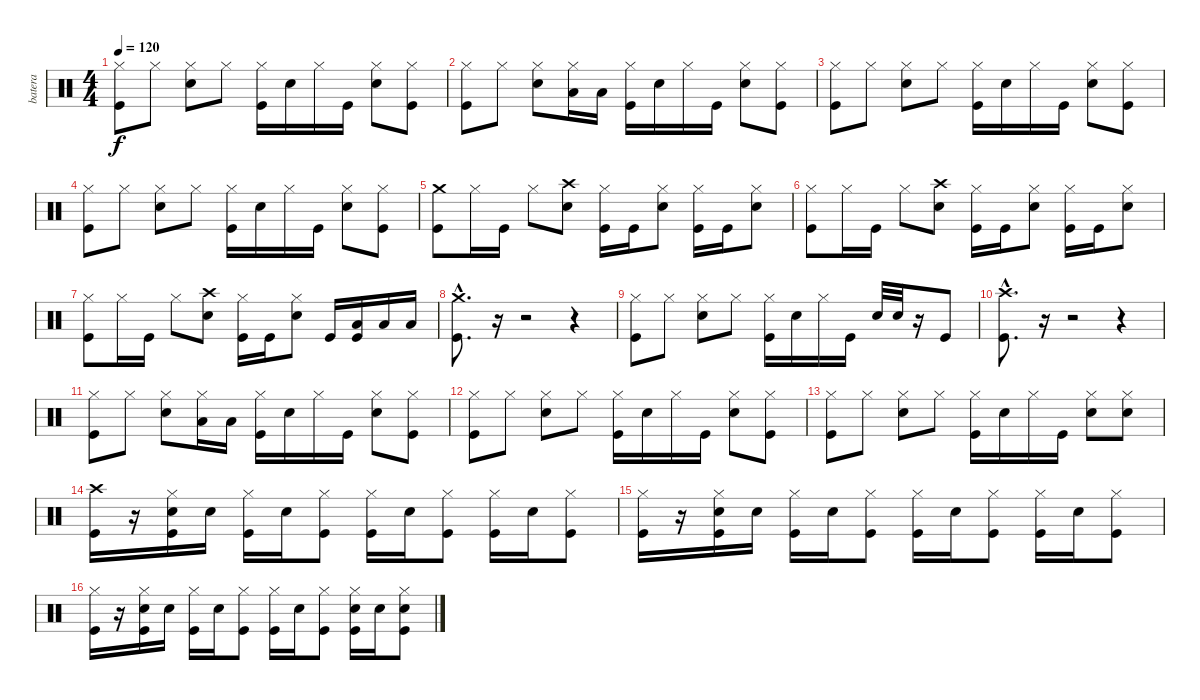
\track ("batera" "batera") {instrument percussion}
\staff {score}
\articulation defaults
\ts (4 4)
\tempo 120
\clef neutral
\ks c
("Hi-Hat (closed)" "Kick (hit)").8{dy f} "Hi-Hat (closed)".8 ("Hi-Hat (closed)" "Snare (hit) 2").8 "Hi-Hat (closed)".8 ("Hi-Hat (closed)" "Kick (hit)").16 "Snare (hit) 2".16 "Hi-Hat (closed)".16 "Kick (hit)".16 ("Hi-Hat (closed)" "Snare (hit) 2").8 ("Hi-Hat (closed)" "Kick (hit)").8 |
("Hi-Hat (closed)" "Kick (hit)").8 "Hi-Hat (closed)".8 ("Hi-Hat (closed)" "Snare (hit) 2").8 ("Hi-Hat (closed)" "Low Tom (hit)").16 "Low Tom (hit)".16 ("Hi-Hat (closed)" "Kick (hit)").16 "Snare (hit) 2".16 "Hi-Hat (closed)".16 "Kick (hit)".16 ("Hi-Hat (closed)" "Snare (hit) 2").8 ("Hi-Hat (closed)" "Kick (hit)").8 |
("Hi-Hat (closed)" "Kick (hit)").8 "Hi-Hat (closed)".8 ("Hi-Hat (closed)" "Snare (hit) 2").8 "Hi-Hat (closed)".8 ("Hi-Hat (closed)" "Kick (hit)").16 "Snare (hit) 2".16 "Hi-Hat (closed)".16 "Kick (hit)".16 ("Hi-Hat (closed)" "Snare (hit) 2").8 ("Hi-Hat (closed)" "Kick (hit)").8 |
("Hi-Hat (closed)" "Kick (hit)").8 "Hi-Hat (closed)".8 ("Hi-Hat (closed)" "Snare (hit) 2").8 "Hi-Hat (closed)".8 ("Hi-Hat (closed)" "Kick (hit)").16 "Snare (hit) 2".16 "Hi-Hat (closed)".16 "Kick (hit)".16 ("Hi-Hat (closed)" "Snare (hit) 2").8 ("Hi-Hat (closed)" "Kick (hit)").8 |
("Crash medium (hit)" "Kick (hit)").8 "Hi-Hat (closed)".16 "Kick (hit)".16 "Hi-Hat (closed)".8 ("Crash high (hit)" "Snare (hit) 2").8 ("Hi-Hat (closed)" "Kick (hit)").16 "Kick (hit)".16 ("Hi-Hat (closed)" "Snare (hit) 2").8 ("Hi-Hat (closed)" "Kick (hit)").16 "Kick (hit)".16 ("Hi-Hat (closed)" "Snare (hit) 2").8 |
("Hi-Hat (closed)" "Kick (hit)").8 "Hi-Hat (closed)".16 "Kick (hit)".16 "Hi-Hat (closed)".8 ("Crash high (hit)" "Snare (hit) 2").8 ("Hi-Hat (closed)" "Kick (hit)").16 "Kick (hit)".16 ("Hi-Hat (closed)" "Snare (hit) 2").8 ("Hi-Hat (closed)" "Kick (hit)").16 "Kick (hit)".16 ("Hi-Hat (closed)" "Snare (hit) 2").8 |
("Hi-Hat (closed)" "Kick (hit)").8 "Hi-Hat (closed)".16 "Kick (hit)".16 "Hi-Hat (closed)".8 ("Crash high (hit)" "Snare (hit) 2").8 ("Hi-Hat (closed)" "Kick (hit)").16 "Kick (hit)".16 ("Hi-Hat (closed)" "Snare (hit) 2").8 "Kick (hit)".16 ("Low Tom (hit)" "Kick (hit)").16 "Low Tom (hit)".16 "Low Tom (hit)".16 |
("Crash medium (hit)"{hac} "Kick (hit)"{hac}).8{d} r.16 r.2 r.4 |
("Hi-Hat (closed)" "Kick (hit)").8 "Hi-Hat (closed)".8 ("Hi-Hat (closed)" "Snare (hit) 2").8 "Hi-Hat (closed)".8 ("Hi-Hat (closed)" "Kick (hit)").16 "Snare (hit) 2".16 "Hi-Hat (closed)".16 "Kick (hit)".16 "Snare (hit) 2".32 "Snare (hit) 2".32 r.16 "Kick (hit)".8 |
("Crash high (hit)"{hac} "Kick (hit)"{hac}).8{d} r.16 r.2 r.4 |
("Hi-Hat (closed)" "Kick (hit)").8 "Hi-Hat (closed)".8 ("Hi-Hat (closed)" "Snare (hit) 2").8 ("Hi-Hat (closed)" "Low Tom (hit)").16 "Low Tom (hit)".16 ("Hi-Hat (closed)" "Kick (hit)").16 "Snare (hit) 2".16 "Hi-Hat (closed)".16 "Kick (hit)".16 ("Hi-Hat (closed)" "Snare (hit) 2").8 ("Hi-Hat (closed)" "Kick (hit)").8 |
("Hi-Hat (closed)" "Kick (hit)").8 "Hi-Hat (closed)".8 ("Hi-Hat (closed)" "Snare (hit) 2").8 "Hi-Hat (closed)".8 ("Hi-Hat (closed)" "Kick (hit)").16 "Snare (hit) 2".16 "Hi-Hat (closed)".16 "Kick (hit)".16 ("Hi-Hat (closed)" "Snare (hit) 2").8 ("Hi-Hat (closed)" "Kick (hit)").8 |
("Hi-Hat (closed)" "Kick (hit)").8 "Hi-Hat (closed)".8 ("Hi-Hat (closed)" "Snare (hit) 2").8 "Hi-Hat (closed)".8 ("Hi-Hat (closed)" "Kick (hit)").16 "Snare (hit) 2".16 "Hi-Hat (closed)".16 "Kick (hit)".16 ("Hi-Hat (closed)" "Snare (hit) 2").8 ("Hi-Hat (closed)" "Snare (hit) 2").8 |
("Crash high (hit)" "Kick (hit)").16 r.16 ("Hi-Hat (closed)" "Snare (hit) 2" "Kick (hit)").16 "Snare (hit) 2".16 ("Hi-Hat (closed)" "Kick (hit)").16 "Snare (hit) 2".16 ("Hi-Hat (closed)" "Kick (hit)").8 ("Hi-Hat (closed)" "Kick (hit)").16 "Snare (hit) 2".16 ("Hi-Hat (closed)" "Kick (hit)").8 ("Hi-Hat (closed)" "Kick (hit)").16 "Snare (hit) 2".16 ("Hi-Hat (closed)" "Kick (hit)").8 |
("Hi-Hat (closed)" "Kick (hit)").16 r.16 ("Hi-Hat (closed)" "Snare (hit) 2" "Kick (hit)").16 "Snare (hit) 2".16 ("Hi-Hat (closed)" "Kick (hit)").16 "Snare (hit) 2".16 ("Hi-Hat (closed)" "Kick (hit)").8 ("Hi-Hat (closed)" "Kick (hit)").16 "Snare (hit) 2".16 ("Hi-Hat (closed)" "Kick (hit)").8 ("Hi-Hat (closed)" "Kick (hit)").16 "Snare (hit) 2".16 ("Hi-Hat (closed)" "Kick (hit)").8 |
("Hi-Hat (closed)" "Kick (hit)").16 r.16 ("Hi-Hat (closed)" "Snare (hit) 2" "Kick (hit)").16 "Snare (hit) 2".16 ("Hi-Hat (closed)" "Kick (hit)").16 "Snare (hit) 2".16 ("Hi-Hat (closed)" "Kick (hit)").8 ("Hi-Hat (closed)" "Kick (hit)").16 "Snare (hit) 2".16 ("Hi-Hat (closed)" "Kick (hit)").8 ("Hi-Hat (closed)" "Snare (hit) 2" "Kick (hit)").16 "Snare (hit) 2".16 ("Hi-Hat (closed)" "Snare (hit) 2" "Kick (hit)").8
